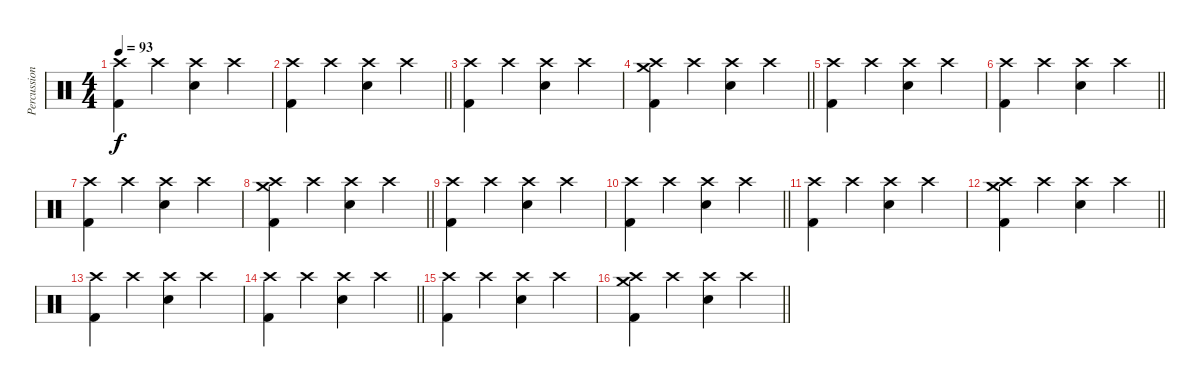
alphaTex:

\track ("Percussion" "Percussion") {instrument percussion}
\staff {score}
\articulation defaults
\ts (4 4)
\tempo 93
\clef neutral
\ks c
("Kick (hit) 2" "Crash high (hit)").4{dy f} "Crash high (hit)".4 ("Electric Snare (hit)" "Crash high (hit)").4 "Crash high (hit)".4 |
\barLineRight lightlight
("Kick (hit) 2" "Crash high (hit)").4 "Crash high (hit)".4 ("Electric Snare (hit)" "Crash high (hit)").4 "Crash high (hit)".4 |
("Kick (hit) 2" "Crash high (hit)").4 "Crash high (hit)".4 ("Electric Snare (hit)" "Crash high (hit)").4 "Crash high (hit)".4 |
\barLineRight lightlight
("Kick (hit) 2" "Crash medium (hit)" "Crash high (hit)").4 "Crash high (hit)".4 ("Electric Snare (hit)" "Crash high (hit)").4 "Crash high (hit)".4 |
("Kick (hit) 2" "Crash high (hit)").4 "Crash high (hit)".4 ("Electric Snare (hit)" "Crash high (hit)").4 "Crash high (hit)".4 |
\barLineRight lightlight
("Kick (hit) 2" "Crash high (hit)").4 "Crash high (hit)".4 ("Electric Snare (hit)" "Crash high (hit)").4 "Crash high (hit)".4 |
("Kick (hit) 2" "Crash high (hit)").4 "Crash high (hit)".4 ("Electric Snare (hit)" "Crash high (hit)").4 "Crash high (hit)".4 |
\barLineRight lightlight
("Kick (hit) 2" "Crash medium (hit)" "Crash high (hit)").4 "Crash high (hit)".4 ("Electric Snare (hit)" "Crash high (hit)").4 "Crash high (hit)".4 |
("Kick (hit) 2" "Crash high (hit)").4 "Crash high (hit)".4 ("Electric Snare (hit)" "Crash high (hit)").4 "Crash high (hit)".4 |
\barLineRight lightlight
("Kick (hit) 2" "Crash high (hit)").4 "Crash high (hit)".4 ("Electric Snare (hit)" "Crash high (hit)").4 "Crash high (hit)".4 |
("Kick (hit) 2" "Crash high (hit)").4 "Crash high (hit)".4 ("Electric Snare (hit)" "Crash high (hit)").4 "Crash high (hit)".4 |
\barLineRight lightlight
("Kick (hit) 2" "Crash medium (hit)" "Crash high (hit)").4 "Crash high (hit)".4 ("Electric Snare (hit)" "Crash high (hit)").4 "Crash high (hit)".4 |
("Kick (hit) 2" "Crash high (hit)").4 "Crash high (hit)".4 ("Electric Snare (hit)" "Crash high (hit)").4 "Crash high (hit)".4 |
\barLineRight lightlight
("Kick (hit) 2" "Crash high (hit)").4 "Crash high (hit)".4 ("Electric Snare (hit)" "Crash high (hit)").4 "Crash high (hit)".4 |
("Kick (hit) 2" "Crash high (hit)").4 "Crash high (hit)".4 ("Electric Snare (hit)" "Crash high (hit)").4 "Crash high (hit)".4 |
\barLineRight lightlight
("Kick (hit) 2" "Crash medium (hit)" "Crash high (hit)").4 "Crash high (hit)".4 ("Electric Snare (hit)" "Crash high (hit)").4 "Crash high (hit)".4
